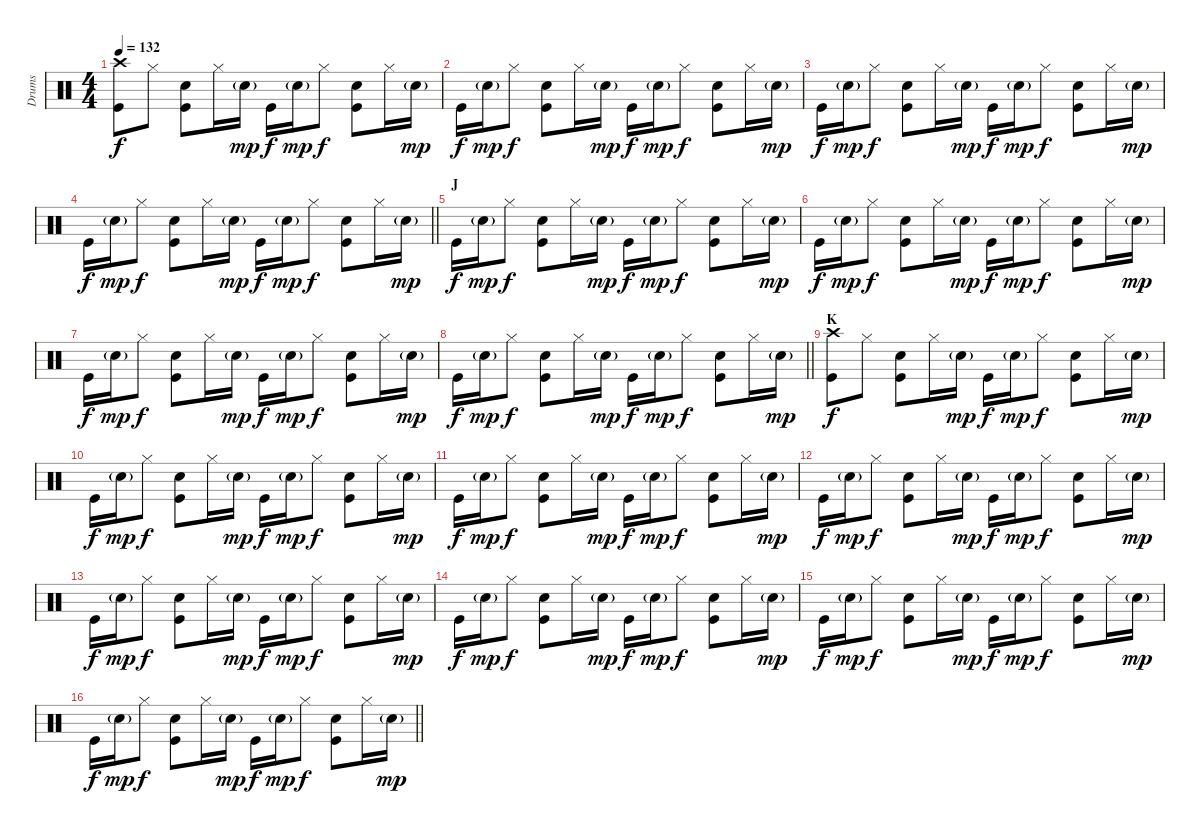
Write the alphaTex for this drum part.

\track ("Drums" "Drums") {instrument percussion}
\staff {score}
\articulation defaults
\ts (4 4)
\tempo 132
\clef neutral
\ks c
("Crash high (hit)" "Kick (hit)").8{dy f} "Hi-Hat (closed)".8 ("Electric Snare (hit)" "Kick (hit)").8 "Hi-Hat (closed)".16 "Electric Snare (hit)"{g}.16{dy mp} "Kick (hit)".16{dy f} "Electric Snare (hit)"{g}.16{dy mp} "Hi-Hat (closed)".8{dy f} ("Electric Snare (hit)" "Kick (hit)").8 "Hi-Hat (closed)".16 "Electric Snare (hit)"{g}.16{dy mp} |
"Kick (hit)".16{dy f} "Electric Snare (hit)"{g}.16{dy mp} "Hi-Hat (closed)".8{dy f} ("Electric Snare (hit)" "Kick (hit)").8 "Hi-Hat (closed)".16 "Electric Snare (hit)"{g}.16{dy mp} "Kick (hit)".16{dy f} "Electric Snare (hit)"{g}.16{dy mp} "Hi-Hat (closed)".8{dy f} ("Electric Snare (hit)" "Kick (hit)").8 "Hi-Hat (closed)".16 "Electric Snare (hit)"{g}.16{dy mp} |
"Kick (hit)".16{dy f} "Electric Snare (hit)"{g}.16{dy mp} "Hi-Hat (closed)".8{dy f} ("Electric Snare (hit)" "Kick (hit)").8 "Hi-Hat (closed)".16 "Electric Snare (hit)"{g}.16{dy mp} "Kick (hit)".16{dy f} "Electric Snare (hit)"{g}.16{dy mp} "Hi-Hat (closed)".8{dy f} ("Electric Snare (hit)" "Kick (hit)").8 "Hi-Hat (closed)".16 "Electric Snare (hit)"{g}.16{dy mp} |
\barLineRight lightlight "Kick (hit)".16{dy f} "Electric Snare (hit)"{g}.16{dy mp} "Hi-Hat (closed)".8{dy f}
("Electric Snare (hit)" "Kick (hit)").8 "Hi-Hat (closed)".16 "Electric Snare (hit)"{g}.16{dy mp} "Kick (hit)".16{dy f} "Electric Snare (hit)"{g}.16{dy mp} "Hi-Hat (closed)".8{dy f} ("Electric Snare (hit)" "Kick (hit)").8 "Hi-Hat (closed)".16 "Electric Snare (hit)"{g}.16{dy mp} |
\section ("" "J")
"Kick (hit)".16{dy f} "Electric Snare (hit)"{g}.16{dy mp} "Hi-Hat (closed)".8{dy f} ("Electric Snare (hit)" "Kick (hit)").8 "Hi-Hat (closed)".16 "Electric Snare (hit)"{g}.16{dy mp} "Kick (hit)".16{dy f} "Electric Snare (hit)"{g}.16{dy mp} "Hi-Hat (closed)".8{dy f} ("Electric Snare (hit)" "Kick (hit)").8 "Hi-Hat (closed)".16 "Electric Snare (hit)"{g}.16{dy mp} |
"Kick (hit)".16{dy f} "Electric Snare (hit)"{g}.16{dy mp} "Hi-Hat (closed)".8{dy f} ("Electric Snare (hit)" "Kick (hit)").8 "Hi-Hat (closed)".16 "Electric Snare (hit)"{g}.16{dy mp} "Kick (hit)".16{dy f} "Electric Snare (hit)"{g}.16{dy mp} "Hi-Hat (closed)".8{dy f} ("Electric Snare (hit)" "Kick (hit)").8 "Hi-Hat (closed)".16 "Electric Snare (hit)"{g}.16{dy mp} |
"Kick (hit)".16{dy f} "Electric Snare (hit)"{g}.16{dy mp} "Hi-Hat (closed)".8{dy f} ("Electric Snare (hit)" "Kick (hit)").8 "Hi-Hat (closed)".16 "Electric Snare (hit)"{g}.16{dy mp} "Kick (hit)".16{dy f} "Electric Snare (hit)"{g}.16{dy mp} "Hi-Hat (closed)".8{dy f} ("Electric Snare (hit)" "Kick (hit)").8 "Hi-Hat (closed)".16 "Electric Snare (hit)"{g}.16{dy mp} |
\barLineRight lightlight "Kick (hit)".16{dy f} "Electric Snare (hit)"{g}.16{dy mp} "Hi-Hat (closed)".8{dy f}
("Electric Snare (hit)" "Kick (hit)").8 "Hi-Hat (closed)".16 "Electric Snare (hit)"{g}.16{dy mp} "Kick (hit)".16{dy f} "Electric Snare (hit)"{g}.16{dy mp} "Hi-Hat (closed)".8{dy f} ("Electric Snare (hit)" "Kick (hit)").8 "Hi-Hat (closed)".16 "Electric Snare (hit)"{g}.16{dy mp} |
\section ("" "K")
("Crash high (hit)" "Kick (hit)").8{dy f} "Hi-Hat (closed)".8 ("Electric Snare (hit)" "Kick (hit)").8 "Hi-Hat (closed)".16 "Electric Snare (hit)"{g}.16{dy mp} "Kick (hit)".16{dy f} "Electric Snare (hit)"{g}.16{dy mp} "Hi-Hat (closed)".8{dy f} ("Electric Snare (hit)" "Kick (hit)").8 "Hi-Hat (closed)".16 "Electric Snare (hit)"{g}.16{dy mp} |
"Kick (hit)".16{dy f} "Electric Snare (hit)"{g}.16{dy mp} "Hi-Hat (closed)".8{dy f} ("Electric Snare (hit)" "Kick (hit)").8 "Hi-Hat (closed)".16 "Electric Snare (hit)"{g}.16{dy mp} "Kick (hit)".16{dy f} "Electric Snare (hit)"{g}.16{dy mp} "Hi-Hat (closed)".8{dy f} ("Electric Snare (hit)" "Kick (hit)").8 "Hi-Hat (closed)".16 "Electric Snare (hit)"{g}.16{dy mp} |
"Kick (hit)".16{dy f} "Electric Snare (hit)"{g}.16{dy mp} "Hi-Hat (closed)".8{dy f} ("Electric Snare (hit)" "Kick (hit)").8 "Hi-Hat (closed)".16 "Electric Snare (hit)"{g}.16{dy mp} "Kick (hit)".16{dy f} "Electric Snare (hit)"{g}.16{dy mp} "Hi-Hat (closed)".8{dy f} ("Electric Snare (hit)" "Kick (hit)").8 "Hi-Hat (closed)".16 "Electric Snare (hit)"{g}.16{dy mp} |
"Kick (hit)".16{dy f} "Electric Snare (hit)"{g}.16{dy mp} "Hi-Hat (closed)".8{dy f} ("Electric Snare (hit)" "Kick (hit)").8 "Hi-Hat (closed)".16 "Electric Snare (hit)"{g}.16{dy mp} "Kick (hit)".16{dy f} "Electric Snare (hit)"{g}.16{dy mp} "Hi-Hat (closed)".8{dy f} ("Electric Snare (hit)" "Kick (hit)").8 "Hi-Hat (closed)".16 "Electric Snare (hit)"{g}.16{dy mp} |
"Kick (hit)".16{dy f} "Electric Snare (hit)"{g}.16{dy mp} "Hi-Hat (closed)".8{dy f} ("Electric Snare (hit)" "Kick (hit)").8 "Hi-Hat (closed)".16 "Electric Snare (hit)"{g}.16{dy mp} "Kick (hit)".16{dy f} "Electric Snare (hit)"{g}.16{dy mp} "Hi-Hat (closed)".8{dy f} ("Electric Snare (hit)" "Kick (hit)").8 "Hi-Hat (closed)".16 "Electric Snare (hit)"{g}.16{dy mp} |
"Kick (hit)".16{dy f} "Electric Snare (hit)"{g}.16{dy mp} "Hi-Hat (closed)".8{dy f} ("Electric Snare (hit)" "Kick (hit)").8 "Hi-Hat (closed)".16 "Electric Snare (hit)"{g}.16{dy mp} "Kick (hit)".16{dy f} "Electric Snare (hit)"{g}.16{dy mp} "Hi-Hat (closed)".8{dy f} ("Electric Snare (hit)" "Kick (hit)").8 "Hi-Hat (closed)".16 "Electric Snare (hit)"{g}.16{dy mp} |
"Kick (hit)".16{dy f} "Electric Snare (hit)"{g}.16{dy mp} "Hi-Hat (closed)".8{dy f} ("Electric Snare (hit)" "Kick (hit)").8 "Hi-Hat (closed)".16 "Electric Snare (hit)"{g}.16{dy mp} "Kick (hit)".16{dy f} "Electric Snare (hit)"{g}.16{dy mp} "Hi-Hat (closed)".8{dy f} ("Electric Snare (hit)" "Kick (hit)").8 "Hi-Hat (closed)".16 "Electric Snare (hit)"{g}.16{dy mp} |
\barLineRight lightlight "Kick (hit)".16{dy f} "Electric Snare (hit)"{g}.16{dy mp} "Hi-Hat (closed)".8{dy f}
("Electric Snare (hit)" "Kick (hit)").8 "Hi-Hat (closed)".16 "Electric Snare (hit)"{g}.16{dy mp} "Kick (hit)".16{dy f} "Electric Snare (hit)"{g}.16{dy mp} "Hi-Hat (closed)".8{dy f} ("Electric Snare (hit)" "Kick (hit)").8 "Hi-Hat (closed)".16 "Electric Snare (hit)"{g}.16{dy mp}
